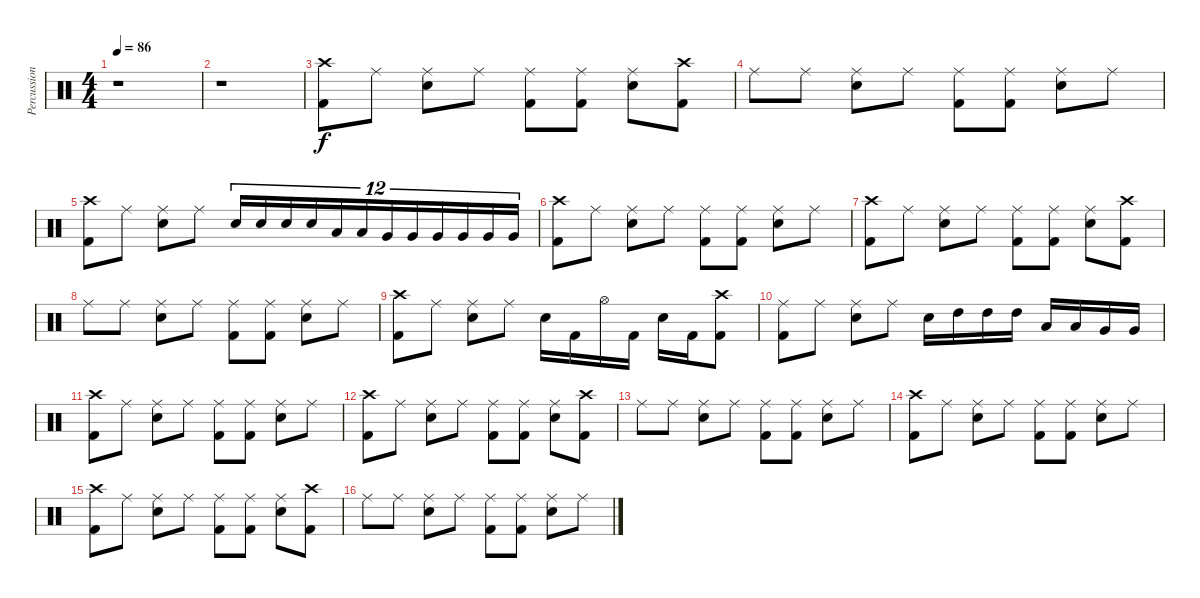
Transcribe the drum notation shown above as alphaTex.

\track ("Percussions (from MIDI)" "Percussion") {instrument percussion}
\staff {score}
\articulation defaults
\ts (4 4)
\tempo 86
\clef neutral
\ks c
r.1{dy f} |
r.1 |
("Crash high (hit)" "Kick (hit) 2").8 "Ride (middle)".8 ("Ride (middle)" "Electric Snare (hit)").8 "Ride (middle)".8 ("Ride (middle)" "Kick (hit) 2").8 ("Ride (middle)" "Kick (hit) 2").8 ("Ride (middle)" "Electric Snare (hit)").8 ("Crash high (hit)" "Kick (hit) 2").8 |
"Ride (middle)".8 "Ride (middle)".8 ("Ride (middle)" "Electric Snare (hit)").8 "Ride (middle)".8 ("Ride (middle)" "Kick (hit) 2").8 ("Ride (middle)" "Kick (hit) 2").8 ("Ride (middle)" "Electric Snare (hit)").8 "Ride (middle)".8 |
("Crash high (hit)" "Kick (hit) 2").8 "Ride (middle)".8 ("Ride (middle)" "Electric Snare (hit)").8 "Ride (middle)".8 "Electric Snare (hit)".16{tu (12 8)} "Electric Snare (hit)".16{tu (12 8)} "Electric Snare (hit)".16{tu (12 8)} "Electric Snare (hit)".16{tu (12 8)} "Low Tom (hit)".16{tu (12 8)} "Low Tom (hit)".16{tu (12 8)} "Very Low Tom (hit)".16{tu (12 8)} "Very Low Tom (hit)".16{tu (12 8)} "Very Low Tom (hit)".16{tu (12 8)} "Very Low Tom (hit)".16{tu (12 8)} "Very Low Tom (hit)".16{tu (12 8)} "Very Low Tom (hit)".16{tu (12 8)} |
("Crash high (hit)" "Kick (hit) 2").8 "Ride (middle)".8 ("Ride (middle)" "Electric Snare (hit)").8 "Ride (middle)".8 ("Ride (middle)" "Kick (hit) 2").8 ("Ride (middle)" "Kick (hit) 2").8 ("Ride (middle)" "Electric Snare (hit)").8 "Ride (middle)".8 |
("Crash high (hit)" "Kick (hit) 2").8 "Ride (middle)".8 ("Ride (middle)" "Electric Snare (hit)").8 "Ride (middle)".8 ("Ride (middle)" "Kick (hit) 2").8 ("Ride (middle)" "Kick (hit) 2").8 ("Ride (middle)" "Electric Snare (hit)").8 ("Crash high (hit)" "Kick (hit) 2").8 |
"Ride (middle)".8 "Ride (middle)".8 ("Ride (middle)" "Electric Snare (hit)").8 "Ride (middle)".8 ("Ride (middle)" "Kick (hit) 2").8 ("Ride (middle)" "Kick (hit) 2").8 ("Ride (middle)" "Electric Snare (hit)").8 "Ride (middle)".8 |
("Crash high (hit)" "Kick (hit) 2").8 "Ride (middle)".8 ("Ride (middle)" "Electric Snare (hit)").8 "Ride (middle)".8 "Electric Snare (hit)".16 "Kick (hit) 2".16 "Hi-Hat (open)".16 "Kick (hit) 2".16 "Electric Snare (hit)".16 "Kick (hit) 2".16 ("Crash high (hit)" "Kick (hit) 2").8 |
("Ride (middle)" "Kick (hit) 2").8 "Ride (middle)".8 ("Ride (middle)" "Electric Snare (hit)").8 "Ride (middle)".8 "Electric Snare (hit)".16 "High Tom (hit)".16 "High Tom (hit)".16 "High Tom (hit)".16 "Low Tom (hit)".16 "Low Tom (hit)".16 "Very Low Tom (hit)".16 "Very Low Tom (hit)".16 |
("Crash high (hit)" "Kick (hit) 2").8 "Ride (middle)".8 ("Ride (middle)" "Electric Snare (hit)").8 "Ride (middle)".8 ("Ride (middle)" "Kick (hit) 2").8 ("Ride (middle)" "Kick (hit) 2").8 ("Ride (middle)" "Electric Snare (hit)").8 "Ride (middle)".8 |
("Crash high (hit)" "Kick (hit) 2").8 "Ride (middle)".8 ("Ride (middle)" "Electric Snare (hit)").8 "Ride (middle)".8 ("Ride (middle)" "Kick (hit) 2").8 ("Ride (middle)" "Kick (hit) 2").8 ("Ride (middle)" "Electric Snare (hit)").8 ("Crash high (hit)" "Kick (hit) 2").8 |
"Ride (middle)".8 "Ride (middle)".8 ("Ride (middle)" "Electric Snare (hit)").8 "Ride (middle)".8 ("Ride (middle)" "Kick (hit) 2").8 ("Ride (middle)" "Kick (hit) 2").8 ("Ride (middle)" "Electric Snare (hit)").8 "Ride (middle)".8 |
("Crash high (hit)" "Kick (hit) 2").8 "Ride (middle)".8 ("Ride (middle)" "Electric Snare (hit)").8 "Ride (middle)".8 ("Ride (middle)" "Kick (hit) 2").8 ("Ride (middle)" "Kick (hit) 2").8 ("Ride (middle)" "Electric Snare (hit)").8 "Ride (middle)".8 |
("Crash high (hit)" "Kick (hit) 2").8 "Ride (middle)".8 ("Ride (middle)" "Electric Snare (hit)").8 "Ride (middle)".8 ("Ride (middle)" "Kick (hit) 2").8 ("Ride (middle)" "Kick (hit) 2").8 ("Ride (middle)" "Electric Snare (hit)").8 ("Crash high (hit)" "Kick (hit) 2").8 |
"Ride (middle)".8 "Ride (middle)".8 ("Ride (middle)" "Electric Snare (hit)").8 "Ride (middle)".8 ("Ride (middle)" "Kick (hit) 2").8 ("Ride (middle)" "Kick (hit) 2").8 ("Ride (middle)" "Electric Snare (hit)").8 "Ride (middle)".8
